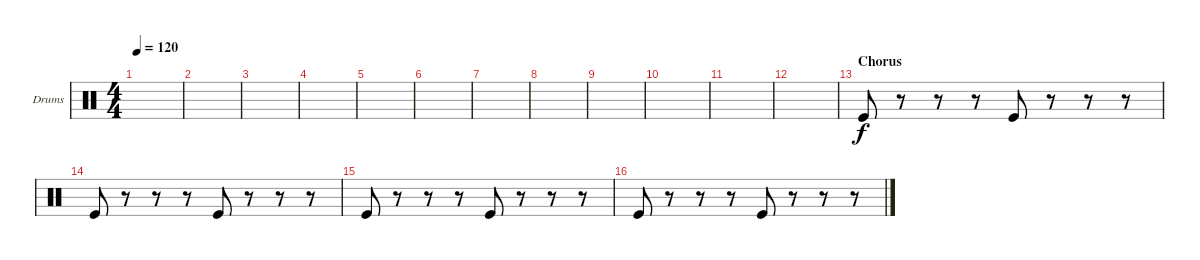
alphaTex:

\defaultSystemsLayout 4
\bracketExtendMode groupsimilarinstruments
\firstSystemTrackNameOrientation horizontal
\otherSystemsTrackNameOrientation horizontal
\track ("Cajon (Drum Box)" "Drums") {instrument percussion}
\staff {score}
\articulation defaults
\ts (4 4)
\tempo 120
\clef neutral
\ks c
|
|
|
|
|
|
|
|
|
|
|
|
\section ("" "Chorus")
"Kick (hit)".8 r.8 r.8 r.8 "Kick (hit)".8 r.8 r.8 r.8 |
"Kick (hit)".8 r.8 r.8 r.8 "Kick (hit)".8 r.8 r.8 r.8 |
"Kick (hit)".8 r.8 r.8 r.8 "Kick (hit)".8 r.8 r.8 r.8 |
"Kick (hit)".8 r.8 r.8 r.8 "Kick (hit)".8 r.8 r.8 r.8
